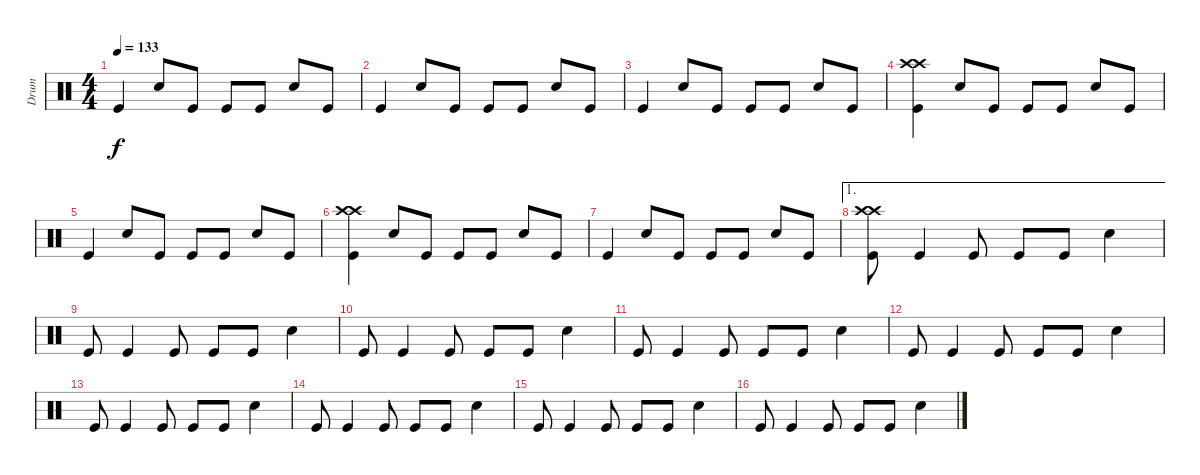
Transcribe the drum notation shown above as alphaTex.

\track ("Drum" "Drum") {instrument percussion}
\staff {score}
\articulation defaults
\ts (4 4)
\tempo 133
\clef neutral
\ks c "Kick (hit)".4{dy f} "Snare (hit) 2".8 "Kick (hit)".8 "Kick (hit)".8 "Kick (hit)".8 "Snare (hit) 2".8 "Kick (hit)".8
|
"Kick (hit)".4 "Snare (hit) 2".8 "Kick (hit)".8 "Kick (hit)".8 "Kick (hit)".8 "Snare (hit) 2".8 "Kick (hit)".8 |
"Kick (hit)".4 "Snare (hit) 2".8 "Kick (hit)".8 "Kick (hit)".8 "Kick (hit)".8 "Snare (hit) 2".8 "Kick (hit)".8 |
("Crash high (hit)" "Crash high (hit)" "Kick (hit)").4 "Snare (hit) 2".8 "Kick (hit)".8 "Kick (hit)".8 "Kick (hit)".8 "Snare (hit) 2".8 "Kick (hit)".8 |
"Kick (hit)".4 "Snare (hit) 2".8 "Kick (hit)".8 "Kick (hit)".8 "Kick (hit)".8 "Snare (hit) 2".8 "Kick (hit)".8 |
("Crash high (hit)" "Crash high (hit)" "Kick (hit)").4 "Snare (hit) 2".8 "Kick (hit)".8 "Kick (hit)".8 "Kick (hit)".8 "Snare (hit) 2".8 "Kick (hit)".8 |
"Kick (hit)".4 "Snare (hit) 2".8 "Kick (hit)".8 "Kick (hit)".8 "Kick (hit)".8 "Snare (hit) 2".8 "Kick (hit)".8 |
\ae 1
("Crash high (hit)" "Crash high (hit)" "Kick (hit)").8 "Kick (hit)".4 "Kick (hit)".8 "Kick (hit)".8 "Kick (hit)".8 "Snare (hit) 2".4 |
"Kick (hit)".8 "Kick (hit)".4 "Kick (hit)".8 "Kick (hit)".8 "Kick (hit)".8 "Snare (hit) 2".4 |
"Kick (hit)".8 "Kick (hit)".4 "Kick (hit)".8 "Kick (hit)".8 "Kick (hit)".8 "Snare (hit) 2".4 |
"Kick (hit)".8 "Kick (hit)".4 "Kick (hit)".8 "Kick (hit)".8 "Kick (hit)".8 "Snare (hit) 2".4 |
"Kick (hit)".8 "Kick (hit)".4 "Kick (hit)".8 "Kick (hit)".8 "Kick (hit)".8 "Snare (hit) 2".4 |
"Kick (hit)".8 "Kick (hit)".4 "Kick (hit)".8 "Kick (hit)".8 "Kick (hit)".8 "Snare (hit) 2".4 |
"Kick (hit)".8 "Kick (hit)".4 "Kick (hit)".8 "Kick (hit)".8 "Kick (hit)".8 "Snare (hit) 2".4 |
"Kick (hit)".8 "Kick (hit)".4 "Kick (hit)".8 "Kick (hit)".8 "Kick (hit)".8 "Snare (hit) 2".4 |
"Kick (hit)".8 "Kick (hit)".4 "Kick (hit)".8 "Kick (hit)".8 "Kick (hit)".8 "Snare (hit) 2".4
